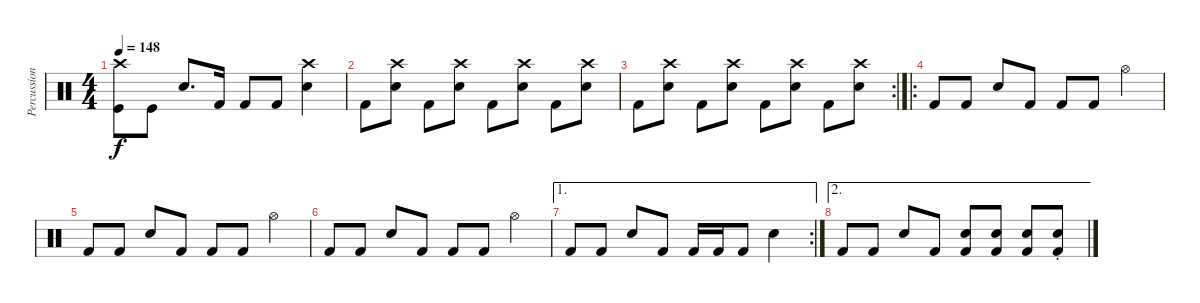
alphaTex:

\track ("Percussion" "Percussion") {instrument percussion}
\staff {score}
\articulation defaults
\ts (4 4)
\tempo 148
\clef neutral
\ks c
("Crash high (hit)" "Kick (hit)").8{dy f} "Kick (hit)".8 "Snare (hit) 2".8{d} "Kick (hit) 2".16 "Kick (hit) 2".8 "Kick (hit) 2".8 ("Crash high (hit)" "Snare (hit) 2").4 |
"Kick (hit) 2".8 ("Crash high (hit)" "Snare (hit) 2").8 "Kick (hit) 2".8 ("Crash high (hit)" "Snare (hit) 2").8 "Kick (hit) 2".8 ("Crash high (hit)" "Snare (hit) 2").8 "Kick (hit) 2".8 ("Crash high (hit)" "Snare (hit) 2").8 |
\rc 2 "Kick (hit) 2".8
("Crash high (hit)" "Snare (hit) 2").8 "Kick (hit) 2".8 ("Crash high (hit)" "Snare (hit) 2").8 "Kick (hit) 2".8 ("Crash high (hit)" "Snare (hit) 2").8 "Kick (hit) 2".8 ("Crash high (hit)" "Snare (hit) 2").8 |
\ro "Kick (hit) 2".8 "Kick (hit) 2".8 "Snare (hit) 2".8 "Kick (hit) 2".8 "Kick (hit) 2".8 "Kick (hit) 2".8 "Hi-Hat (open)".4
|
"Kick (hit) 2".8 "Kick (hit) 2".8 "Snare (hit) 2".8 "Kick (hit) 2".8 "Kick (hit) 2".8 "Kick (hit) 2".8 "Hi-Hat (open)".4 |
"Kick (hit) 2".8 "Kick (hit) 2".8 "Snare (hit) 2".8 "Kick (hit) 2".8 "Kick (hit) 2".8 "Kick (hit) 2".8 "Hi-Hat (open)".4 |
\ae 1
\rc 2 "Kick (hit) 2".8 "Kick (hit) 2".8 "Snare (hit) 2".8 "Kick (hit) 2".8 "Kick (hit) 2".16 "Kick (hit) 2".16 "Kick (hit) 2".8 "Electric Snare (hit)".4
|
\ae 2 "Kick (hit) 2".8 "Kick (hit) 2".8 "Snare (hit) 2".8 "Kick (hit) 2".8
("Electric Snare (hit)" "Kick (hit) 2").8 ("Electric Snare (hit)" "Kick (hit) 2").8 ("Electric Snare (hit)" "Kick (hit) 2").8 ("Electric Snare (hit)"{st} "Kick (hit) 2").8
